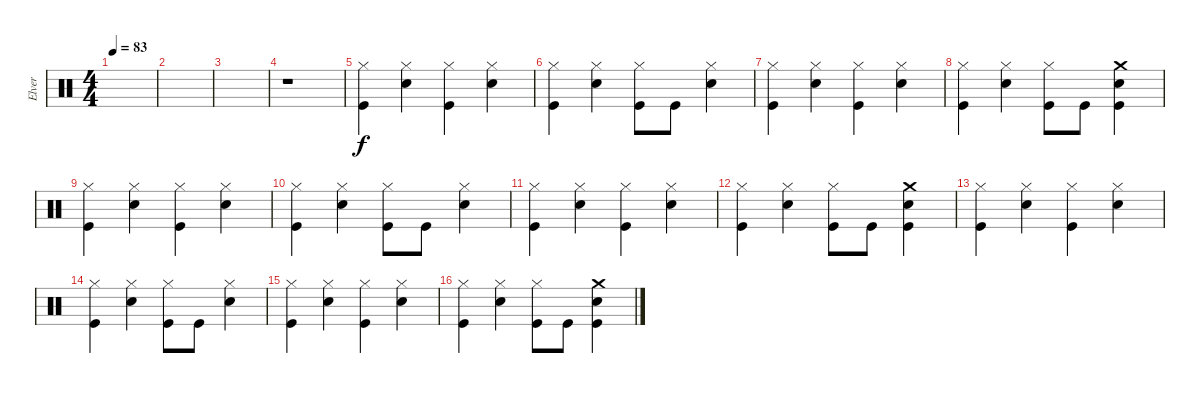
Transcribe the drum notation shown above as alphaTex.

\track ("Elver" "Elver") {instrument percussion}
\staff {score}
\articulation defaults
\ts (4 4)
\tempo 83
\clef neutral
\ks c
|
|
|
r.1 |
("Hi-Hat (closed)" "Kick (hit)").4 ("Electric Snare (hit)" "Hi-Hat (closed)").4 ("Kick (hit)" "Hi-Hat (closed)").4 ("Hi-Hat (closed)" "Electric Snare (hit)").4 |
("Hi-Hat (closed)" "Kick (hit)").4 ("Electric Snare (hit)" "Hi-Hat (closed)").4 ("Kick (hit)" "Hi-Hat (closed)").8 "Kick (hit)".8 ("Hi-Hat (closed)" "Electric Snare (hit)").4 |
("Hi-Hat (closed)" "Kick (hit)").4 ("Electric Snare (hit)" "Hi-Hat (closed)").4 ("Kick (hit)" "Hi-Hat (closed)").4 ("Hi-Hat (closed)" "Electric Snare (hit)").4 |
("Hi-Hat (closed)" "Kick (hit)").4 ("Electric Snare (hit)" "Hi-Hat (closed)").4 ("Kick (hit)" "Hi-Hat (closed)").8 "Kick (hit)".8 ("Kick (hit)" "Crash medium (hit)" "Electric Snare (hit)").4 |
("Hi-Hat (closed)" "Kick (hit)").4 ("Electric Snare (hit)" "Hi-Hat (closed)").4 ("Kick (hit)" "Hi-Hat (closed)").4 ("Hi-Hat (closed)" "Electric Snare (hit)").4 |
("Hi-Hat (closed)" "Kick (hit)").4 ("Electric Snare (hit)" "Hi-Hat (closed)").4 ("Kick (hit)" "Hi-Hat (closed)").8 "Kick (hit)".8 ("Hi-Hat (closed)" "Electric Snare (hit)").4 |
("Hi-Hat (closed)" "Kick (hit)").4 ("Electric Snare (hit)" "Hi-Hat (closed)").4 ("Kick (hit)" "Hi-Hat (closed)").4 ("Hi-Hat (closed)" "Electric Snare (hit)").4 |
("Hi-Hat (closed)" "Kick (hit)").4 ("Electric Snare (hit)" "Hi-Hat (closed)").4 ("Kick (hit)" "Hi-Hat (closed)").8 "Kick (hit)".8 ("Kick (hit)" "Crash medium (hit)" "Electric Snare (hit)").4 |
("Hi-Hat (closed)" "Kick (hit)").4 ("Electric Snare (hit)" "Hi-Hat (closed)").4 ("Kick (hit)" "Hi-Hat (closed)").4 ("Hi-Hat (closed)" "Electric Snare (hit)").4 |
("Hi-Hat (closed)" "Kick (hit)").4 ("Electric Snare (hit)" "Hi-Hat (closed)").4 ("Kick (hit)" "Hi-Hat (closed)").8 "Kick (hit)".8 ("Hi-Hat (closed)" "Electric Snare (hit)").4 |
("Hi-Hat (closed)" "Kick (hit)").4 ("Electric Snare (hit)" "Hi-Hat (closed)").4 ("Kick (hit)" "Hi-Hat (closed)").4 ("Hi-Hat (closed)" "Electric Snare (hit)").4 |
("Hi-Hat (closed)" "Kick (hit)").4 ("Electric Snare (hit)" "Hi-Hat (closed)").4 ("Kick (hit)" "Hi-Hat (closed)").8 "Kick (hit)".8 ("Kick (hit)" "Crash medium (hit)" "Electric Snare (hit)").4
